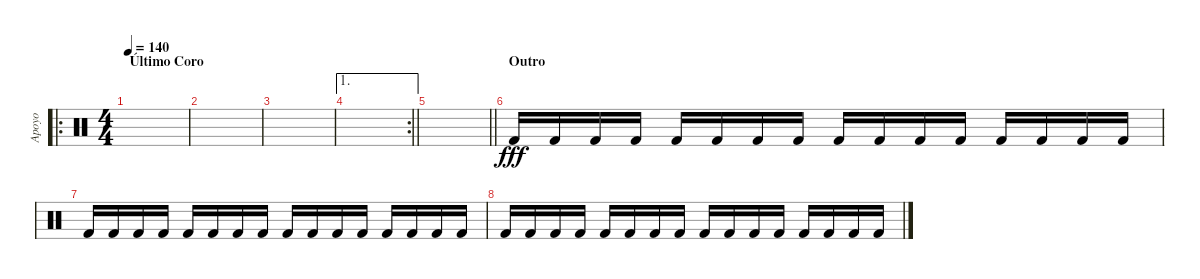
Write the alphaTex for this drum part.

\track ("Apoyo" "Apoyo") {instrument percussion}
\staff {score}
\articulation defaults
\ro
\ts (4 4)
\section ("" "Último Coro")
\tempo 140
\clef neutral
\ks c
|
|
|
\ae 1
\rc 2
\barLineRight lightlight
|
\barLineRight lightlight
|
\section ("" "Outro")
"Kick (hit) 2".16{dy fff} "Kick (hit) 2".16 "Kick (hit) 2".16 "Kick (hit) 2".16 "Kick (hit) 2".16 "Kick (hit) 2".16 "Kick (hit) 2".16 "Kick (hit) 2".16 "Kick (hit) 2".16 "Kick (hit) 2".16 "Kick (hit) 2".16 "Kick (hit) 2".16 "Kick (hit) 2".16 "Kick (hit) 2".16 "Kick (hit) 2".16 "Kick (hit) 2".16 |
"Kick (hit) 2".16 "Kick (hit) 2".16 "Kick (hit) 2".16 "Kick (hit) 2".16 "Kick (hit) 2".16 "Kick (hit) 2".16 "Kick (hit) 2".16 "Kick (hit) 2".16 "Kick (hit) 2".16 "Kick (hit) 2".16 "Kick (hit) 2".16 "Kick (hit) 2".16 "Kick (hit) 2".16 "Kick (hit) 2".16 "Kick (hit) 2".16 "Kick (hit) 2".16 |
"Kick (hit) 2".16 "Kick (hit) 2".16 "Kick (hit) 2".16 "Kick (hit) 2".16 "Kick (hit) 2".16 "Kick (hit) 2".16 "Kick (hit) 2".16 "Kick (hit) 2".16 "Kick (hit) 2".16 "Kick (hit) 2".16 "Kick (hit) 2".16 "Kick (hit) 2".16 "Kick (hit) 2".16 "Kick (hit) 2".16 "Kick (hit) 2".16 "Kick (hit) 2".16
